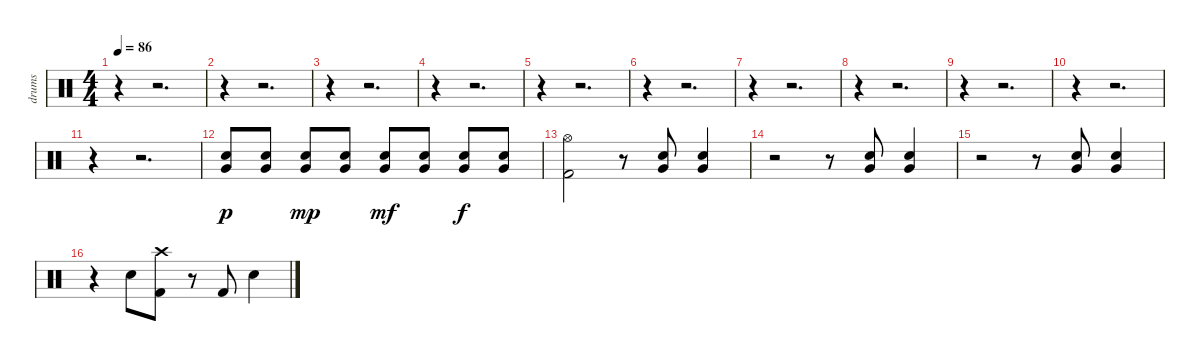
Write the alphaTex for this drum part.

\track ("drums" "drums") {instrument percussion}
\staff {score}
\articulation defaults
\ts (4 4)
\tempo 86
\clef neutral
\ks c
r.4{dy p} r.2{d} |
r.4 r.2{d} |
r.4 r.2{d} |
r.4 r.2{d} |
r.4 r.2{d} |
r.4 r.2{d} |
r.4 r.2{d} |
r.4 r.2{d} |
r.4 r.2{d} |
r.4 r.2{d} |
r.4 r.2{d} |
("Very Low Tom (hit)" "Electric Snare (hit)").8 ("Very Low Tom (hit)" "Electric Snare (hit)").8 ("Very Low Tom (hit)" "Electric Snare (hit)").8{dy mp} ("Very Low Tom (hit)" "Electric Snare (hit)").8 ("Very Low Tom (hit)" "Electric Snare (hit)").8{dy mf} ("Very Low Tom (hit)" "Electric Snare (hit)").8 ("Very Low Tom (hit)" "Electric Snare (hit)").8{dy f} ("Very Low Tom (hit)" "Electric Snare (hit)").8 |
("Hi-Hat (open)" "Kick (hit) 2").2 r.8 ("Very Low Tom (hit)" "Electric Snare (hit)").8 ("Very Low Tom (hit)" "Electric Snare (hit)").4 |
r.2 r.8 ("Very Low Tom (hit)" "Electric Snare (hit)").8 ("Very Low Tom (hit)" "Electric Snare (hit)").4 |
r.2 r.8 ("Very Low Tom (hit)" "Electric Snare (hit)").8 ("Very Low Tom (hit)" "Electric Snare (hit)").4 |
r.4 "Electric Snare (hit)".8 ("Crash high (hit)" "Kick (hit) 2").8 r.8 "Kick (hit) 2".8 "Electric Snare (hit)".4
